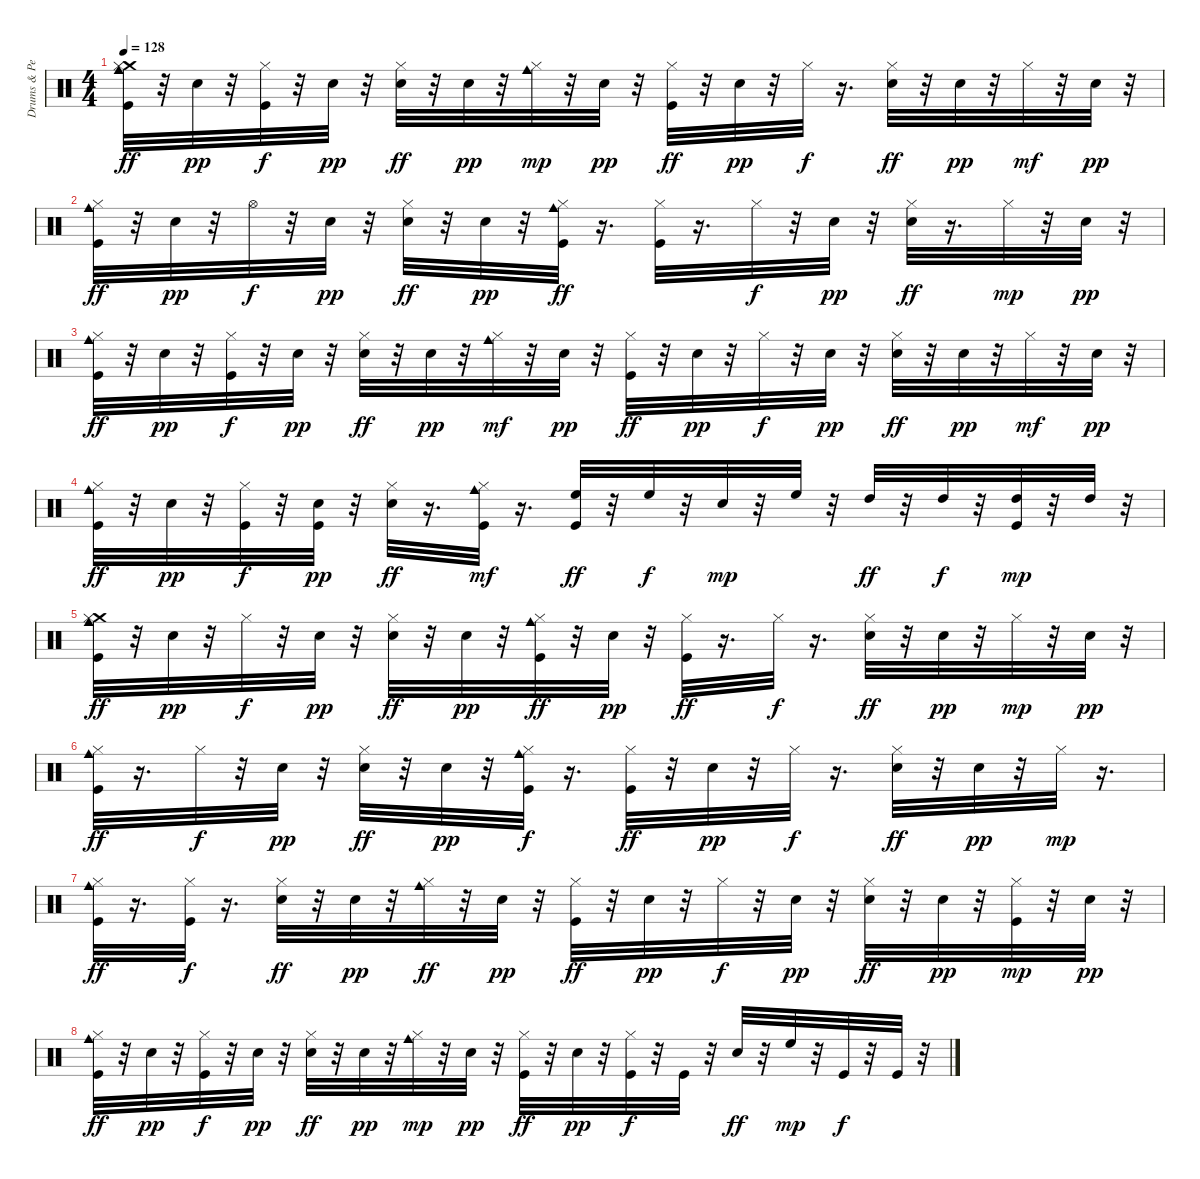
\track ("Drums & Percussion" "Drums & Pe") {instrument percussion}
\staff {score}
\articulation defaults
\ts (4 4)
\tempo 128
\clef neutral
\ks c
("Crash medium (hit)" "Kick (hit)" "Hi-Hat (closed)" "Cowbell medium (hit)").32{dy ff} r.32 "Electric Snare (hit)".32{dy pp} r.32 ("Kick (hit)" "Hi-Hat (closed)").32{dy f} r.32 "Electric Snare (hit)".32{dy pp} r.32 ("Hi-Hat (closed)" "Electric Snare (hit)").32{dy ff} r.32 "Electric Snare (hit)".32{dy pp} r.32 ("Hi-Hat (closed)" "Cowbell medium (hit)").32{dy mp} r.32 "Electric Snare (hit)".32{dy pp} r.32 ("Kick (hit)" "Hi-Hat (closed)").32{dy ff} r.32 "Electric Snare (hit)".32{dy pp} r.32 "Hi-Hat (closed)".32{dy f} r.16{d} ("Hi-Hat (closed)" "Electric Snare (hit)").32{dy ff} r.32 "Electric Snare (hit)".32{dy pp} r.32 "Hi-Hat (closed)".32{dy mf} r.32 "Electric Snare (hit)".32{dy pp} r.32 |
("Kick (hit)" "Hi-Hat (closed)" "Cowbell medium (hit)").32{dy ff} r.32 "Electric Snare (hit)".32{dy pp} r.32 "Hi-Hat (open)".32{dy f} r.32 "Electric Snare (hit)".32{dy pp} r.32 ("Hi-Hat (closed)" "Electric Snare (hit)").32{dy ff} r.32 "Electric Snare (hit)".32{dy pp} r.32 ("Kick (hit)" "Hi-Hat (closed)" "Cowbell medium (hit)").32{dy ff} r.16{d} ("Kick (hit)" "Hi-Hat (closed)").32 r.16{d} "Hi-Hat (closed)".32{dy f} r.32 "Electric Snare (hit)".32{dy pp} r.32 ("Hi-Hat (closed)" "Electric Snare (hit)").32{dy ff} r.16{d} "Hi-Hat (closed)".32{dy mp} r.32 "Electric Snare (hit)".32{dy pp} r.32 |
("Kick (hit)" "Hi-Hat (closed)" "Cowbell medium (hit)").32{dy ff} r.32 "Electric Snare (hit)".32{dy pp} r.32 ("Kick (hit)" "Hi-Hat (closed)").32{dy f} r.32 "Electric Snare (hit)".32{dy pp} r.32 ("Hi-Hat (closed)" "Electric Snare (hit)").32{dy ff} r.32 "Electric Snare (hit)".32{dy pp} r.32 ("Hi-Hat (closed)" "Cowbell medium (hit)").32{dy mf} r.32 "Electric Snare (hit)".32{dy pp} r.32 ("Kick (hit)" "Hi-Hat (closed)").32{dy ff} r.32 "Electric Snare (hit)".32{dy pp} r.32 "Hi-Hat (closed)".32{dy f} r.32 "Electric Snare (hit)".32{dy pp} r.32 ("Hi-Hat (closed)" "Electric Snare (hit)").32{dy ff} r.32 "Electric Snare (hit)".32{dy pp} r.32 "Hi-Hat (closed)".32{dy mf} r.32 "Electric Snare (hit)".32{dy pp} r.32 |
("Kick (hit)" "Hi-Hat (closed)" "Cowbell medium (hit)").32{dy ff} r.32 "Electric Snare (hit)".32{dy pp} r.32 ("Kick (hit)" "Hi-Hat (closed)").32{dy f} r.32 ("Kick (hit)" "Electric Snare (hit)").32{dy pp} r.32 ("Hi-Hat (closed)" "Electric Snare (hit)").32{dy ff} r.16{d} ("Kick (hit)" "Hi-Hat (closed)" "Cowbell medium (hit)").32{dy mf} r.16{d} ("Kick (hit)" "High Floor Tom (hit)").32{dy ff} r.32 "High Floor Tom (hit)".32{dy f} r.32 "Electric Snare (hit)".32{dy mp} r.32 "High Floor Tom (hit)".32 r.32 "High Tom (hit)".32{dy ff} r.32 "High Tom (hit)".32{dy f} r.32 ("Kick (hit)" "High Tom (hit)").32{dy mp} r.32 "High Tom (hit)".32 r.32 |
("Crash medium (hit)" "Kick (hit)" "Hi-Hat (closed)" "Cowbell medium (hit)").32{dy ff} r.32 "Electric Snare (hit)".32{dy pp} r.32 "Hi-Hat (closed)".32{dy f} r.32 "Electric Snare (hit)".32{dy pp} r.32 ("Hi-Hat (closed)" "Electric Snare (hit)").32{dy ff} r.32 "Electric Snare (hit)".32{dy pp} r.32 ("Kick (hit)" "Hi-Hat (closed)" "Cowbell medium (hit)").32{dy ff} r.32 "Electric Snare (hit)".32{dy pp} r.32 ("Kick (hit)" "Hi-Hat (closed)").32{dy ff} r.16{d} "Hi-Hat (closed)".32{dy f} r.16{d} ("Hi-Hat (closed)" "Electric Snare (hit)").32{dy ff} r.32 "Electric Snare (hit)".32{dy pp} r.32 "Hi-Hat (closed)".32{dy mp} r.32 "Electric Snare (hit)".32{dy pp} r.32 |
("Kick (hit)" "Hi-Hat (closed)" "Cowbell medium (hit)").32{dy ff} r.16{d} "Hi-Hat (closed)".32{dy f} r.32 "Electric Snare (hit)".32{dy pp} r.32 ("Hi-Hat (closed)" "Electric Snare (hit)").32{dy ff} r.32 "Electric Snare (hit)".32{dy pp} r.32 ("Kick (hit)" "Hi-Hat (closed)" "Cowbell medium (hit)").32{dy f} r.16{d} ("Kick (hit)" "Hi-Hat (closed)").32{dy ff} r.32 "Electric Snare (hit)".32{dy pp} r.32 "Hi-Hat (closed)".32{dy f} r.16{d} ("Hi-Hat (closed)" "Electric Snare (hit)").32{dy ff} r.32 "Electric Snare (hit)".32{dy pp} r.32 "Hi-Hat (closed)".32{dy mp} r.16{d} |
("Kick (hit)" "Hi-Hat (closed)" "Cowbell medium (hit)").32{dy ff} r.16{d} ("Kick (hit)" "Hi-Hat (closed)").32{dy f} r.16{d} ("Hi-Hat (closed)" "Electric Snare (hit)").32{dy ff} r.32 "Electric Snare (hit)".32{dy pp} r.32 ("Hi-Hat (closed)" "Cowbell medium (hit)").32{dy ff} r.32 "Electric Snare (hit)".32{dy pp} r.32 ("Kick (hit)" "Hi-Hat (closed)").32{dy ff} r.32 "Electric Snare (hit)".32{dy pp} r.32 "Hi-Hat (closed)".32{dy f} r.32 "Electric Snare (hit)".32{dy pp} r.32 ("Hi-Hat (closed)" "Electric Snare (hit)").32{dy ff} r.32 "Electric Snare (hit)".32{dy pp} r.32 ("Kick (hit)" "Hi-Hat (closed)").32{dy mp} r.32 "Electric Snare (hit)".32{dy pp} r.32 |
("Kick (hit)" "Hi-Hat (closed)" "Cowbell medium (hit)").32{dy ff} r.32 "Electric Snare (hit)".32{dy pp} r.32 ("Kick (hit)" "Hi-Hat (closed)").32{dy f} r.32 "Electric Snare (hit)".32{dy pp} r.32 ("Hi-Hat (closed)" "Electric Snare (hit)").32{dy ff} r.32 "Electric Snare (hit)".32{dy pp} r.32 ("Hi-Hat (closed)" "Cowbell medium (hit)").32{dy mp} r.32 "Electric Snare (hit)".32{dy pp} r.32 ("Kick (hit)" "Hi-Hat (closed)").32{dy ff} r.32 "Electric Snare (hit)".32{dy pp} r.32 ("Kick (hit)" "Hi-Hat (closed)").32{dy f} r.32 "Kick (hit)".32 r.32 "Electric Snare (hit)".32{dy ff} r.32 "High Floor Tom (hit)".32{dy mp} r.32 "Kick (hit)".32{dy f} r.32 "Kick (hit)".32 r.32
